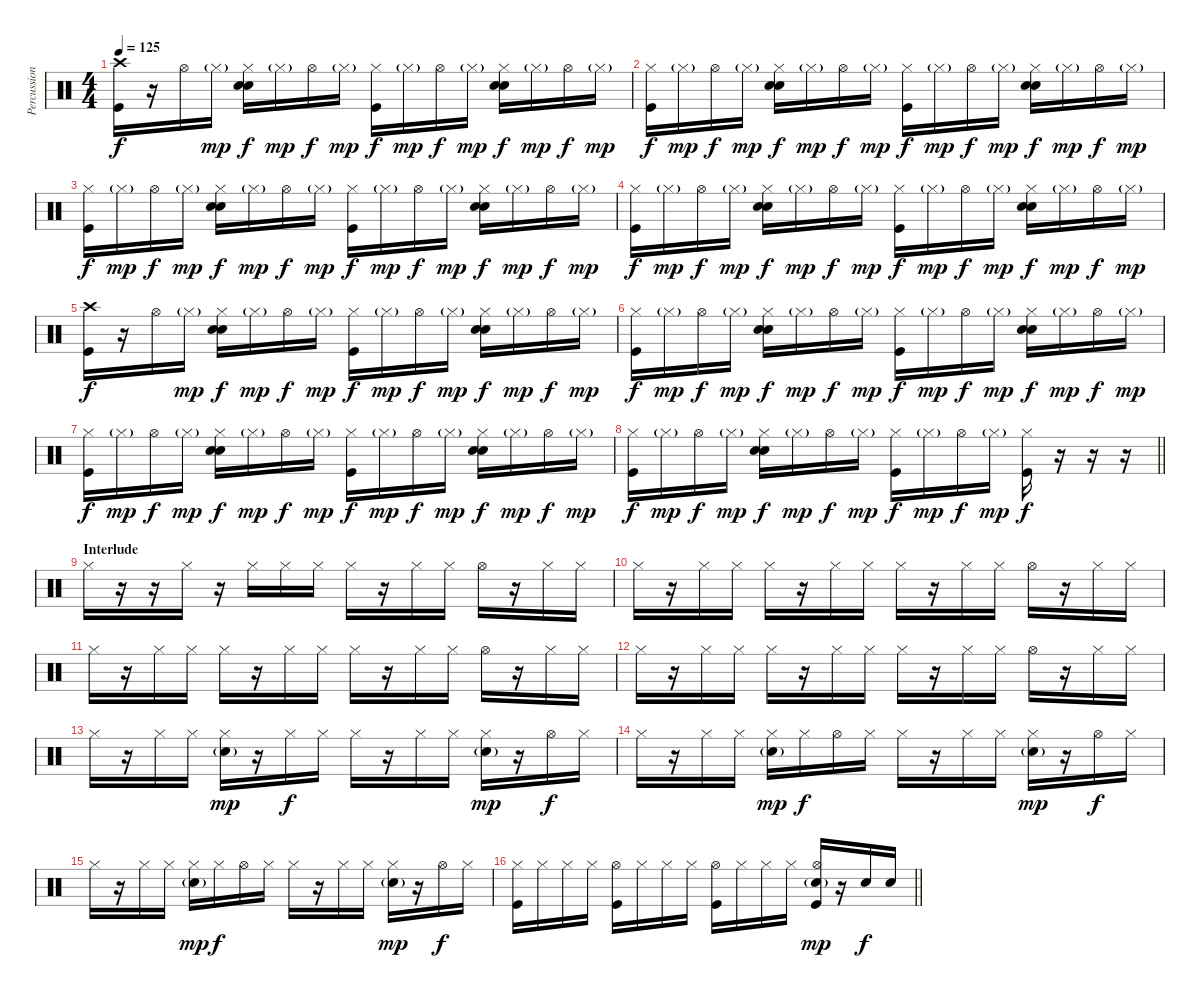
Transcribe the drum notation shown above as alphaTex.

\track ("Percussion" "Percussion") {instrument percussion}
\staff {score}
\articulation defaults
\ts (4 4)
\tempo 125
\clef neutral
\ks c
("Crash high (hit)" "Kick (hit)").16{dy f} r.16 "Hi-Hat (open)".16 "Hi-Hat (closed)"{g}.16{dy mp} ("Hi-Hat (closed)" "Hand Clap (hit)" "Snare (hit) 2").16{dy f} "Hi-Hat (closed)"{g}.16{dy mp} "Hi-Hat (open)".16{dy f} "Hi-Hat (closed)"{g}.16{dy mp} ("Hi-Hat (closed)" "Kick (hit)").16{dy f} "Hi-Hat (closed)"{g}.16{dy mp} "Hi-Hat (open)".16{dy f} "Hi-Hat (closed)"{g}.16{dy mp} ("Hi-Hat (closed)" "Hand Clap (hit)" "Snare (hit) 2").16{dy f} "Hi-Hat (closed)"{g}.16{dy mp} "Hi-Hat (open)".16{dy f} "Hi-Hat (closed)"{g}.16{dy mp} |
("Hi-Hat (closed)" "Kick (hit)").16{dy f} "Hi-Hat (closed)"{g}.16{dy mp} "Hi-Hat (open)".16{dy f} "Hi-Hat (closed)"{g}.16{dy mp} ("Hi-Hat (closed)" "Hand Clap (hit)" "Snare (hit) 2").16{dy f} "Hi-Hat (closed)"{g}.16{dy mp} "Hi-Hat (open)".16{dy f} "Hi-Hat (closed)"{g}.16{dy mp} ("Hi-Hat (closed)" "Kick (hit)").16{dy f} "Hi-Hat (closed)"{g}.16{dy mp} "Hi-Hat (open)".16{dy f} "Hi-Hat (closed)"{g}.16{dy mp} ("Hi-Hat (closed)" "Hand Clap (hit)" "Snare (hit) 2").16{dy f} "Hi-Hat (closed)"{g}.16{dy mp} "Hi-Hat (open)".16{dy f} "Hi-Hat (closed)"{g}.16{dy mp} |
("Hi-Hat (closed)" "Kick (hit)").16{dy f} "Hi-Hat (closed)"{g}.16{dy mp} "Hi-Hat (open)".16{dy f} "Hi-Hat (closed)"{g}.16{dy mp} ("Hi-Hat (closed)" "Hand Clap (hit)" "Snare (hit) 2").16{dy f} "Hi-Hat (closed)"{g}.16{dy mp} "Hi-Hat (open)".16{dy f} "Hi-Hat (closed)"{g}.16{dy mp} ("Hi-Hat (closed)" "Kick (hit)").16{dy f} "Hi-Hat (closed)"{g}.16{dy mp} "Hi-Hat (open)".16{dy f} "Hi-Hat (closed)"{g}.16{dy mp} ("Hi-Hat (closed)" "Hand Clap (hit)" "Snare (hit) 2").16{dy f} "Hi-Hat (closed)"{g}.16{dy mp} "Hi-Hat (open)".16{dy f} "Hi-Hat (closed)"{g}.16{dy mp} |
("Hi-Hat (closed)" "Kick (hit)").16{dy f} "Hi-Hat (closed)"{g}.16{dy mp} "Hi-Hat (open)".16{dy f} "Hi-Hat (closed)"{g}.16{dy mp} ("Hi-Hat (closed)" "Hand Clap (hit)" "Snare (hit) 2").16{dy f} "Hi-Hat (closed)"{g}.16{dy mp} "Hi-Hat (open)".16{dy f} "Hi-Hat (closed)"{g}.16{dy mp} ("Hi-Hat (closed)" "Kick (hit)").16{dy f} "Hi-Hat (closed)"{g}.16{dy mp} "Hi-Hat (open)".16{dy f} "Hi-Hat (closed)"{g}.16{dy mp} ("Hi-Hat (closed)" "Hand Clap (hit)" "Snare (hit) 2").16{dy f} "Hi-Hat (closed)"{g}.16{dy mp} "Hi-Hat (open)".16{dy f} "Hi-Hat (closed)"{g}.16{dy mp} |
("Crash high (hit)" "Kick (hit)").16{dy f} r.16 "Hi-Hat (open)".16 "Hi-Hat (closed)"{g}.16{dy mp} ("Hi-Hat (closed)" "Hand Clap (hit)" "Snare (hit) 2").16{dy f} "Hi-Hat (closed)"{g}.16{dy mp} "Hi-Hat (open)".16{dy f} "Hi-Hat (closed)"{g}.16{dy mp} ("Hi-Hat (closed)" "Kick (hit)").16{dy f} "Hi-Hat (closed)"{g}.16{dy mp} "Hi-Hat (open)".16{dy f} "Hi-Hat (closed)"{g}.16{dy mp} ("Hi-Hat (closed)" "Hand Clap (hit)" "Snare (hit) 2").16{dy f} "Hi-Hat (closed)"{g}.16{dy mp} "Hi-Hat (open)".16{dy f} "Hi-Hat (closed)"{g}.16{dy mp} |
("Hi-Hat (closed)" "Kick (hit)").16{dy f} "Hi-Hat (closed)"{g}.16{dy mp} "Hi-Hat (open)".16{dy f} "Hi-Hat (closed)"{g}.16{dy mp} ("Hi-Hat (closed)" "Hand Clap (hit)" "Snare (hit) 2").16{dy f} "Hi-Hat (closed)"{g}.16{dy mp} "Hi-Hat (open)".16{dy f} "Hi-Hat (closed)"{g}.16{dy mp} ("Hi-Hat (closed)" "Kick (hit)").16{dy f} "Hi-Hat (closed)"{g}.16{dy mp} "Hi-Hat (open)".16{dy f} "Hi-Hat (closed)"{g}.16{dy mp} ("Hi-Hat (closed)" "Hand Clap (hit)" "Snare (hit) 2").16{dy f} "Hi-Hat (closed)"{g}.16{dy mp} "Hi-Hat (open)".16{dy f} "Hi-Hat (closed)"{g}.16{dy mp} |
("Hi-Hat (closed)" "Kick (hit)").16{dy f} "Hi-Hat (closed)"{g}.16{dy mp} "Hi-Hat (open)".16{dy f} "Hi-Hat (closed)"{g}.16{dy mp} ("Hi-Hat (closed)" "Hand Clap (hit)" "Snare (hit) 2").16{dy f} "Hi-Hat (closed)"{g}.16{dy mp} "Hi-Hat (open)".16{dy f} "Hi-Hat (closed)"{g}.16{dy mp} ("Hi-Hat (closed)" "Kick (hit)").16{dy f} "Hi-Hat (closed)"{g}.16{dy mp} "Hi-Hat (open)".16{dy f} "Hi-Hat (closed)"{g}.16{dy mp} ("Hi-Hat (closed)" "Hand Clap (hit)" "Snare (hit) 2").16{dy f} "Hi-Hat (closed)"{g}.16{dy mp} "Hi-Hat (open)".16{dy f} "Hi-Hat (closed)"{g}.16{dy mp} |
\barLineRight lightlight
("Hi-Hat (closed)" "Kick (hit)").16{dy f} "Hi-Hat (closed)"{g}.16{dy mp} "Hi-Hat (open)".16{dy f} "Hi-Hat (closed)"{g}.16{dy mp} ("Hi-Hat (closed)" "Hand Clap (hit)" "Snare (hit) 2").16{dy f} "Hi-Hat (closed)"{g}.16{dy mp} "Hi-Hat (open)".16{dy f} "Hi-Hat (closed)"{g}.16{dy mp} ("Hi-Hat (closed)" "Kick (hit)").16{dy f} "Hi-Hat (closed)"{g}.16{dy mp} "Hi-Hat (open)".16{dy f} "Hi-Hat (closed)"{g}.16{dy mp} ("Hi-Hat (closed)" "Kick (hit)").16{dy f} r.16 r.16 r.16 |
\section ("" "Interlude")
"Hi-Hat (closed)".16 r.16 r.16 "Hi-Hat (closed)".16 r.16 "Hi-Hat (closed)".16 "Hi-Hat (closed)".16 "Hi-Hat (closed)".16 "Hi-Hat (closed)".16 r.16 "Hi-Hat (closed)".16 "Hi-Hat (closed)".16 "Hi-Hat (open)".16 r.16 "Hi-Hat (closed)".16 "Hi-Hat (closed)".16 |
"Hi-Hat (closed)".16 r.16 "Hi-Hat (closed)".16 "Hi-Hat (closed)".16 "Hi-Hat (closed)".16 r.16 "Hi-Hat (closed)".16 "Hi-Hat (closed)".16 "Hi-Hat (closed)".16 r.16 "Hi-Hat (closed)".16 "Hi-Hat (closed)".16 "Hi-Hat (open)".16 r.16 "Hi-Hat (closed)".16 "Hi-Hat (closed)".16 |
"Hi-Hat (closed)".16 r.16 "Hi-Hat (closed)".16 "Hi-Hat (closed)".16 "Hi-Hat (closed)".16 r.16 "Hi-Hat (closed)".16 "Hi-Hat (closed)".16 "Hi-Hat (closed)".16 r.16 "Hi-Hat (closed)".16 "Hi-Hat (closed)".16 "Hi-Hat (open)".16 r.16 "Hi-Hat (closed)".16 "Hi-Hat (closed)".16 |
"Hi-Hat (closed)".16 r.16 "Hi-Hat (closed)".16 "Hi-Hat (closed)".16 "Hi-Hat (closed)".16 r.16 "Hi-Hat (closed)".16 "Hi-Hat (closed)".16 "Hi-Hat (closed)".16 r.16 "Hi-Hat (closed)".16 "Hi-Hat (closed)".16 "Hi-Hat (open)".16 r.16 "Hi-Hat (closed)".16 "Hi-Hat (closed)".16 |
"Hi-Hat (closed)".16 r.16 "Hi-Hat (closed)".16 "Hi-Hat (closed)".16 ("Hi-Hat (closed)" "Snare (hit) 2"{g}).16{dy mp} r.16 "Hi-Hat (closed)".16{dy f} "Hi-Hat (closed)".16 "Hi-Hat (closed)".16 r.16 "Hi-Hat (closed)".16 "Hi-Hat (closed)".16 ("Hi-Hat (closed)" "Snare (hit) 2"{g}).16{dy mp} r.16 "Hi-Hat (open)".16{dy f} "Hi-Hat (closed)".16 |
"Hi-Hat (closed)".16 r.16 "Hi-Hat (closed)".16 "Hi-Hat (closed)".16 ("Hi-Hat (closed)" "Snare (hit) 2"{g}).16{dy mp} "Hi-Hat (closed)".16{dy f} "Hi-Hat (open)".16 "Hi-Hat (closed)".16 "Hi-Hat (closed)".16 r.16 "Hi-Hat (closed)".16 "Hi-Hat (closed)".16 ("Hi-Hat (closed)" "Snare (hit) 2"{g}).16{dy mp} r.16 "Hi-Hat (open)".16{dy f} "Hi-Hat (closed)".16 |
"Hi-Hat (closed)".16 r.16 "Hi-Hat (closed)".16 "Hi-Hat (closed)".16 ("Hi-Hat (closed)" "Snare (hit) 2"{g}).16{dy mp} "Hi-Hat (closed)".16{dy f} "Hi-Hat (open)".16 "Hi-Hat (closed)".16 "Hi-Hat (closed)".16 r.16 "Hi-Hat (closed)".16 "Hi-Hat (closed)".16 ("Hi-Hat (closed)" "Snare (hit) 2"{g}).16{dy mp} r.16 "Hi-Hat (open)".16{dy f} "Hi-Hat (closed)".16 |
\barLineRight lightlight
("Hi-Hat (closed)" "Kick (hit)").16 "Hi-Hat (closed)".16 "Hi-Hat (closed)".16 "Hi-Hat (closed)".16 ("Hi-Hat (open)" "Kick (hit)").16 "Hi-Hat (closed)".16 "Hi-Hat (closed)".16 "Hi-Hat (closed)".16 ("Hi-Hat (open)" "Kick (hit)").16 "Hi-Hat (closed)".16 "Hi-Hat (closed)".16 "Hi-Hat (closed)".16 ("Hi-Hat (open)" "Snare (hit) 2"{g} "Kick (hit)").16{dy mp} r.16 "Snare (hit) 2".16{dy f} "Snare (hit) 2".16
